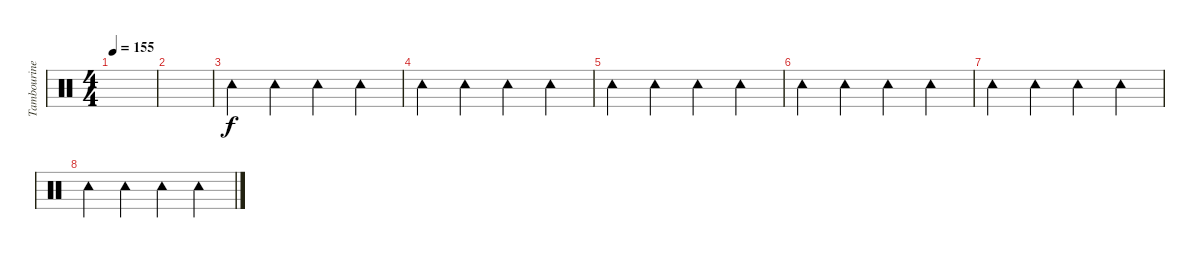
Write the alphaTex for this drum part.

\track ("Tambourine" "Tambourine") {instrument percussion}
\staff {score}
\articulation defaults
\ts (4 4)
\tempo 155
\clef neutral
\ks c
|
|
"Tambourine (hit)".4 "Tambourine (hit)".4 "Tambourine (hit)".4 "Tambourine (hit)".4 |
"Tambourine (hit)".4 "Tambourine (hit)".4 "Tambourine (hit)".4 "Tambourine (hit)".4 |
"Tambourine (hit)".4 "Tambourine (hit)".4 "Tambourine (hit)".4 "Tambourine (hit)".4 |
"Tambourine (hit)".4 "Tambourine (hit)".4 "Tambourine (hit)".4 "Tambourine (hit)".4 |
"Tambourine (hit)".4 "Tambourine (hit)".4 "Tambourine (hit)".4 "Tambourine (hit)".4 |
"Tambourine (hit)".4 "Tambourine (hit)".4 "Tambourine (hit)".4 "Tambourine (hit)".4
